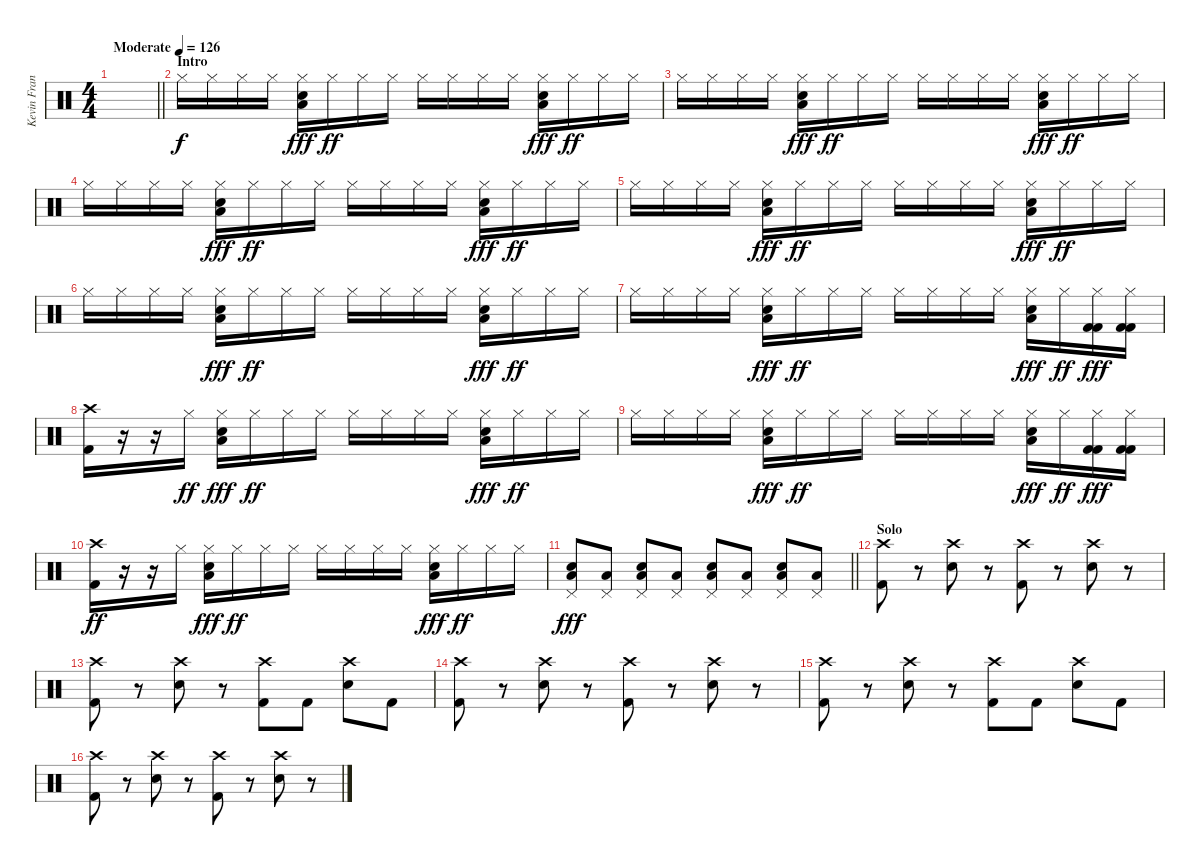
\track ("Kevin Frank" "Kevin Fran") {instrument percussion}
\staff
\articulation defaults
\ts (4 4)
\tempo (126 "Moderate")
\clef neutral
\barLineRight lightlight
\ks c
|
\section ("" "Intro")
"Hi-Hat (closed)".16 "Hi-Hat (closed)".16 "Hi-Hat (closed)".16 "Hi-Hat (closed)".16 ("Hi-Hat (closed)" "Snare (hit) 2" "Low Tom (hit)").16{dy fff} "Hi-Hat (closed)".16{dy ff} "Hi-Hat (closed)".16 "Hi-Hat (closed)".16 "Hi-Hat (closed)".16 "Hi-Hat (closed)".16 "Hi-Hat (closed)".16 "Hi-Hat (closed)".16 ("Hi-Hat (closed)" "Snare (hit) 2" "Low Tom (hit)").16{dy fff} "Hi-Hat (closed)".16{dy ff} "Hi-Hat (closed)".16 "Hi-Hat (closed)".16 |
"Hi-Hat (closed)".16 "Hi-Hat (closed)".16 "Hi-Hat (closed)".16 "Hi-Hat (closed)".16 ("Hi-Hat (closed)" "Snare (hit) 2" "Low Tom (hit)").16{dy fff} "Hi-Hat (closed)".16{dy ff} "Hi-Hat (closed)".16 "Hi-Hat (closed)".16 "Hi-Hat (closed)".16 "Hi-Hat (closed)".16 "Hi-Hat (closed)".16 "Hi-Hat (closed)".16 ("Hi-Hat (closed)" "Snare (hit) 2" "Low Tom (hit)").16{dy fff} "Hi-Hat (closed)".16{dy ff} "Hi-Hat (closed)".16 "Hi-Hat (closed)".16 |
"Hi-Hat (closed)".16 "Hi-Hat (closed)".16 "Hi-Hat (closed)".16 "Hi-Hat (closed)".16 ("Hi-Hat (closed)" "Snare (hit) 2" "Low Tom (hit)").16{dy fff} "Hi-Hat (closed)".16{dy ff} "Hi-Hat (closed)".16 "Hi-Hat (closed)".16 "Hi-Hat (closed)".16 "Hi-Hat (closed)".16 "Hi-Hat (closed)".16 "Hi-Hat (closed)".16 ("Hi-Hat (closed)" "Snare (hit) 2" "Low Tom (hit)").16{dy fff} "Hi-Hat (closed)".16{dy ff} "Hi-Hat (closed)".16 "Hi-Hat (closed)".16 |
"Hi-Hat (closed)".16 "Hi-Hat (closed)".16 "Hi-Hat (closed)".16 "Hi-Hat (closed)".16 ("Hi-Hat (closed)" "Snare (hit) 2" "Low Tom (hit)").16{dy fff} "Hi-Hat (closed)".16{dy ff} "Hi-Hat (closed)".16 "Hi-Hat (closed)".16 "Hi-Hat (closed)".16 "Hi-Hat (closed)".16 "Hi-Hat (closed)".16 "Hi-Hat (closed)".16 ("Hi-Hat (closed)" "Snare (hit) 2" "Low Tom (hit)").16{dy fff} "Hi-Hat (closed)".16{dy ff} "Hi-Hat (closed)".16 "Hi-Hat (closed)".16 |
"Hi-Hat (closed)".16 "Hi-Hat (closed)".16 "Hi-Hat (closed)".16 "Hi-Hat (closed)".16 ("Hi-Hat (closed)" "Snare (hit) 2" "Low Tom (hit)").16{dy fff} "Hi-Hat (closed)".16{dy ff} "Hi-Hat (closed)".16 "Hi-Hat (closed)".16 "Hi-Hat (closed)".16 "Hi-Hat (closed)".16 "Hi-Hat (closed)".16 "Hi-Hat (closed)".16 ("Hi-Hat (closed)" "Snare (hit) 2" "Low Tom (hit)").16{dy fff} "Hi-Hat (closed)".16{dy ff} "Hi-Hat (closed)".16 "Hi-Hat (closed)".16 |
"Hi-Hat (closed)".16 "Hi-Hat (closed)".16 "Hi-Hat (closed)".16 "Hi-Hat (closed)".16 ("Hi-Hat (closed)" "Snare (hit) 2" "Low Tom (hit)").16{dy fff} "Hi-Hat (closed)".16{dy ff} "Hi-Hat (closed)".16 "Hi-Hat (closed)".16 "Hi-Hat (closed)".16 "Hi-Hat (closed)".16 "Hi-Hat (closed)".16 "Hi-Hat (closed)".16 ("Hi-Hat (closed)" "Snare (hit) 2" "Low Tom (hit)").16{dy fff} "Hi-Hat (closed)".16{dy ff} ("Hi-Hat (closed)" "Kick (hit) 2" "Kick (hit) 2").16{dy fff} ("Hi-Hat (closed)" "Kick (hit) 2" "Kick (hit) 2").16 |
("Crash high (hit)" "Kick (hit) 2").16 r.16 r.16 "Hi-Hat (closed)".16{dy ff} ("Hi-Hat (closed)" "Snare (hit) 2" "Low Tom (hit)").16{dy fff} "Hi-Hat (closed)".16{dy ff} "Hi-Hat (closed)".16 "Hi-Hat (closed)".16 "Hi-Hat (closed)".16 "Hi-Hat (closed)".16 "Hi-Hat (closed)".16 "Hi-Hat (closed)".16 ("Hi-Hat (closed)" "Snare (hit) 2" "Low Tom (hit)").16{dy fff} "Hi-Hat (closed)".16{dy ff} "Hi-Hat (closed)".16 "Hi-Hat (closed)".16 |
"Hi-Hat (closed)".16 "Hi-Hat (closed)".16 "Hi-Hat (closed)".16 "Hi-Hat (closed)".16 ("Hi-Hat (closed)" "Snare (hit) 2" "Low Tom (hit)").16{dy fff} "Hi-Hat (closed)".16{dy ff} "Hi-Hat (closed)".16 "Hi-Hat (closed)".16 "Hi-Hat (closed)".16 "Hi-Hat (closed)".16 "Hi-Hat (closed)".16 "Hi-Hat (closed)".16 ("Hi-Hat (closed)" "Snare (hit) 2" "Low Tom (hit)").16{dy fff} "Hi-Hat (closed)".16{dy ff} ("Hi-Hat (closed)" "Kick (hit) 2" "Kick (hit) 2").16{dy fff} ("Hi-Hat (closed)" "Kick (hit) 2" "Kick (hit) 2").16 |
("Crash high (hit)" "Kick (hit) 2").16{dy ff} r.16 r.16 "Hi-Hat (closed)".16 ("Hi-Hat (closed)" "Snare (hit) 2" "Low Tom (hit)").16{dy fff} "Hi-Hat (closed)".16{dy ff} "Hi-Hat (closed)".16 "Hi-Hat (closed)".16 "Hi-Hat (closed)".16 "Hi-Hat (closed)".16 "Hi-Hat (closed)".16 "Hi-Hat (closed)".16 ("Hi-Hat (closed)" "Snare (hit) 2" "Low Tom (hit)").16{dy fff} "Hi-Hat (closed)".16{dy ff} "Hi-Hat (closed)".16 "Hi-Hat (closed)".16 |
\barLineRight lightlight
("Pedal Hi-Hat (hit)" "Snare (hit) 2" "Low Tom (hit)").8{dy fff} ("Pedal Hi-Hat (hit)" "Low Tom (hit)").8 ("Pedal Hi-Hat (hit)" "Snare (hit) 2" "Low Tom (hit)").8 ("Pedal Hi-Hat (hit)" "Low Tom (hit)").8 ("Pedal Hi-Hat (hit)" "Snare (hit) 2" "Low Tom (hit)").8 ("Pedal Hi-Hat (hit)" "Low Tom (hit)").8 ("Pedal Hi-Hat (hit)" "Snare (hit) 2" "Low Tom (hit)").8 ("Pedal Hi-Hat (hit)" "Low Tom (hit)").8 |
\section ("" "Solo")
("Crash high (hit)" "Kick (hit) 2").8 r.8 ("Crash high (hit)" "Snare (hit) 2").8 r.8 ("Crash high (hit)" "Kick (hit) 2").8 r.8 ("Crash high (hit)" "Snare (hit) 2").8 r.8 |
("Crash high (hit)" "Kick (hit) 2").8 r.8 ("Crash high (hit)" "Snare (hit) 2").8 r.8 ("Crash high (hit)" "Kick (hit) 2").8 "Kick (hit) 2".8 ("Crash high (hit)" "Snare (hit) 2").8 "Kick (hit) 2".8 |
("Crash high (hit)" "Kick (hit) 2").8 r.8 ("Crash high (hit)" "Snare (hit) 2").8 r.8 ("Crash high (hit)" "Kick (hit) 2").8 r.8 ("Crash high (hit)" "Snare (hit) 2").8 r.8 |
("Crash high (hit)" "Kick (hit) 2").8 r.8 ("Crash high (hit)" "Snare (hit) 2").8 r.8 ("Crash high (hit)" "Kick (hit) 2").8 "Kick (hit) 2".8 ("Crash high (hit)" "Snare (hit) 2").8 "Kick (hit) 2".8 |
("Crash high (hit)" "Kick (hit) 2").8 r.8 ("Crash high (hit)" "Snare (hit) 2").8 r.8 ("Crash high (hit)" "Kick (hit) 2").8 r.8 ("Crash high (hit)" "Snare (hit) 2").8 r.8
